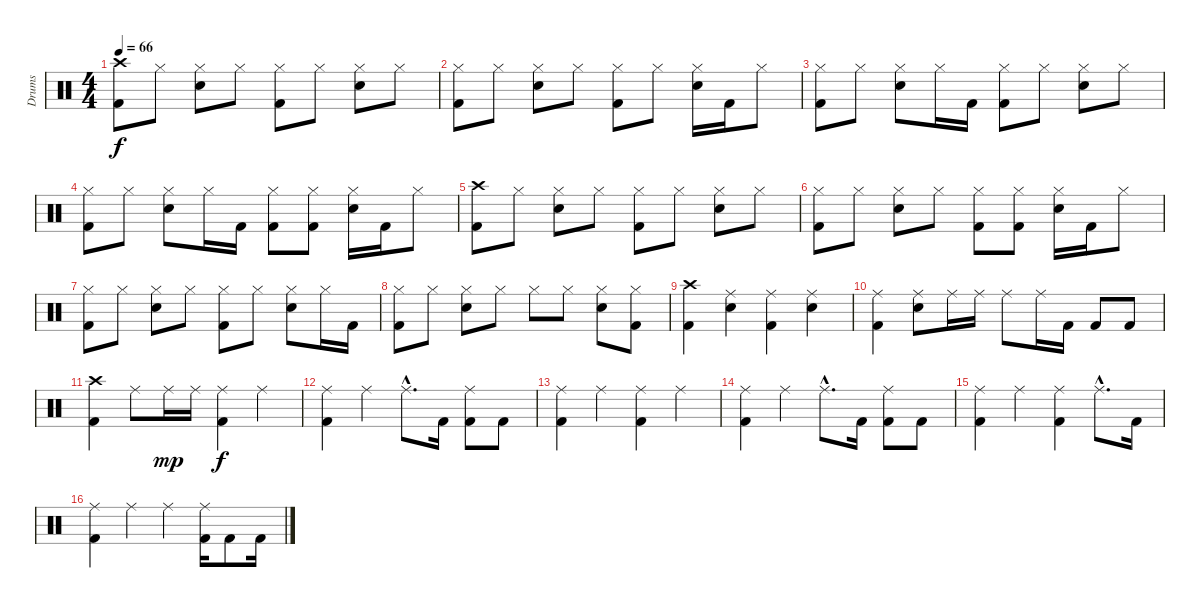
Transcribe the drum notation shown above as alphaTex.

\track ("Drums" "Drums") {instrument percussion}
\staff {score}
\articulation defaults
\ts (4 4)
\tempo 66
\clef neutral
\ks c
("Crash high (hit)" "Kick (hit) 2").8{dy f} "Hi-Hat (closed)".8 ("Hi-Hat (closed)" "Snare (hit) 2").8 "Hi-Hat (closed)".8 ("Hi-Hat (closed)" "Kick (hit) 2").8 "Hi-Hat (closed)".8 ("Hi-Hat (closed)" "Snare (hit) 2").8 "Hi-Hat (closed)".8 |
("Hi-Hat (closed)" "Kick (hit) 2").8 "Hi-Hat (closed)".8 ("Hi-Hat (closed)" "Snare (hit) 2").8 "Hi-Hat (closed)".8 ("Hi-Hat (closed)" "Kick (hit) 2").8 "Hi-Hat (closed)".8 ("Hi-Hat (closed)" "Snare (hit) 2").16 "Kick (hit) 2".16 "Hi-Hat (closed)".8 |
("Hi-Hat (closed)" "Kick (hit) 2").8 "Hi-Hat (closed)".8 ("Hi-Hat (closed)" "Snare (hit) 2").8 "Hi-Hat (closed)".16 "Kick (hit) 2".16 ("Hi-Hat (closed)" "Kick (hit) 2").8 "Hi-Hat (closed)".8 ("Hi-Hat (closed)" "Snare (hit) 2").8 "Hi-Hat (closed)".8 |
("Hi-Hat (closed)" "Kick (hit) 2").8 "Hi-Hat (closed)".8 ("Hi-Hat (closed)" "Snare (hit) 2").8 "Hi-Hat (closed)".16 "Kick (hit) 2".16 ("Hi-Hat (closed)" "Kick (hit) 2").8 ("Hi-Hat (closed)" "Kick (hit) 2").8 ("Hi-Hat (closed)" "Snare (hit) 2").16 "Kick (hit) 2".16 "Hi-Hat (closed)".8 |
("Crash high (hit)" "Kick (hit) 2").8 "Hi-Hat (closed)".8 ("Hi-Hat (closed)" "Snare (hit) 2").8 "Hi-Hat (closed)".8 ("Hi-Hat (closed)" "Kick (hit) 2").8 "Hi-Hat (closed)".8 ("Hi-Hat (closed)" "Snare (hit) 2").8 "Hi-Hat (closed)".8 |
("Hi-Hat (closed)" "Kick (hit) 2").8 "Hi-Hat (closed)".8 ("Hi-Hat (closed)" "Snare (hit) 2").8 "Hi-Hat (closed)".8 ("Hi-Hat (closed)" "Kick (hit) 2").8 ("Hi-Hat (closed)" "Kick (hit) 2").8 ("Hi-Hat (closed)" "Snare (hit) 2").16 "Kick (hit) 2".16 "Hi-Hat (closed)".8 |
("Hi-Hat (closed)" "Kick (hit) 2").8 "Hi-Hat (closed)".8 ("Hi-Hat (closed)" "Snare (hit) 2").8 "Hi-Hat (closed)".8 ("Hi-Hat (closed)" "Kick (hit) 2").8 "Hi-Hat (closed)".8 ("Hi-Hat (closed)" "Snare (hit) 2").8 "Hi-Hat (closed)".16 "Kick (hit) 2".16 |
("Hi-Hat (closed)" "Kick (hit) 2").8 "Hi-Hat (closed)".8 ("Hi-Hat (closed)" "Snare (hit) 2").8 "Hi-Hat (closed)".8 "Hi-Hat (closed)".8 "Hi-Hat (closed)".8 ("Hi-Hat (closed)" "Snare (hit) 2").8 ("Hi-Hat (closed)" "Kick (hit) 2").8 |
("Crash high (hit)" "Kick (hit) 2").4 ("Ride (middle)" "Snare (hit) 2").4 ("Ride (middle)" "Kick (hit) 2").4 ("Ride (middle)" "Snare (hit) 2").4 |
("Ride (middle)" "Kick (hit) 2").4 ("Ride (middle)" "Snare (hit) 2").8 "Ride (middle)".16 "Ride (middle)".16 "Ride (middle)".8 "Ride (middle)".16 "Kick (hit) 2".16 "Kick (hit) 2".8 "Kick (hit) 2".8 |
("Crash high (hit)" "Kick (hit) 2").4 "Ride (middle)".8 "Ride (middle)".16{dy mp} "Ride (middle)".16 ("Ride (middle)" "Kick (hit) 2").4{dy f} "Ride (middle)".4 |
("Ride (middle)" "Kick (hit) 2").4 "Ride (middle)".4 "Ride (middle)"{hac}.8{d} "Kick (hit) 2".16 ("Ride (middle)" "Kick (hit) 2").8 "Kick (hit) 2".8 |
("Ride (middle)" "Kick (hit) 2").4 "Ride (middle)".4 ("Ride (middle)" "Kick (hit) 2").4 "Ride (middle)".4 |
("Ride (middle)" "Kick (hit) 2").4 "Ride (middle)".4 "Ride (middle)"{hac}.8{d} "Kick (hit) 2".16 ("Ride (middle)" "Kick (hit) 2").8 "Kick (hit) 2".8 |
("Ride (middle)" "Kick (hit) 2").4 "Ride (middle)".4 ("Ride (middle)" "Kick (hit) 2").4 "Ride (middle)"{hac}.8{d} "Kick (hit) 2".16 |
("Ride (middle)" "Kick (hit) 2").4 "Ride (middle)".4 "Ride (middle)".4 ("Ride (middle)" "Kick (hit) 2").16 "Kick (hit) 2".8 "Kick (hit) 2".16
